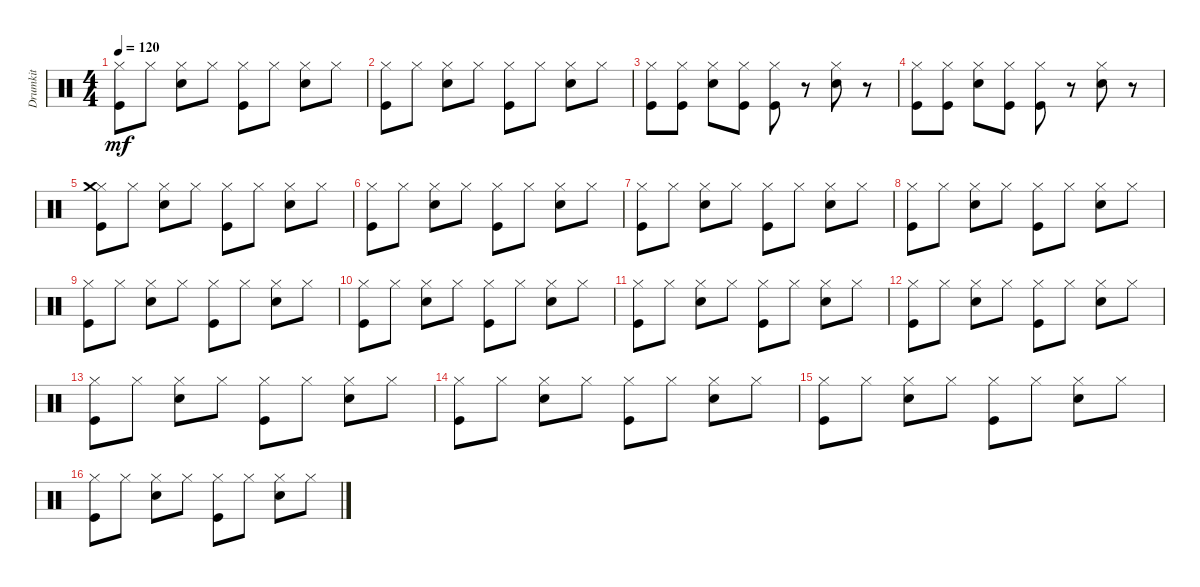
\track ("Drumkit" "Drumkit") {instrument percussion}
\staff {score}
\articulation defaults
\ts (4 4)
\tempo 120
\clef neutral
\ks c
("Hi-Hat (closed)" "Kick (hit)").8{dy mf} "Hi-Hat (closed)".8 ("Hi-Hat (closed)" "Snare (hit) 2").8 "Hi-Hat (closed)".8 ("Hi-Hat (closed)" "Kick (hit)").8 "Hi-Hat (closed)".8 ("Hi-Hat (closed)" "Snare (hit) 2").8 "Hi-Hat (closed)".8 |
("Hi-Hat (closed)" "Kick (hit)").8 "Hi-Hat (closed)".8 ("Hi-Hat (closed)" "Snare (hit) 2").8 "Hi-Hat (closed)".8 ("Hi-Hat (closed)" "Kick (hit)").8 "Hi-Hat (closed)".8 ("Hi-Hat (closed)" "Snare (hit) 2").8 "Hi-Hat (closed)".8 |
("Hi-Hat (closed)" "Kick (hit)").8 ("Hi-Hat (closed)" "Kick (hit)").8 ("Hi-Hat (closed)" "Snare (hit) 2").8 ("Hi-Hat (closed)" "Kick (hit)").8 ("Hi-Hat (closed)" "Kick (hit)").8 r.8 ("Hi-Hat (closed)" "Snare (hit) 2").8 r.8 |
("Hi-Hat (closed)" "Kick (hit)").8 ("Hi-Hat (closed)" "Kick (hit)").8 ("Hi-Hat (closed)" "Snare (hit) 2").8 ("Hi-Hat (closed)" "Kick (hit)").8 ("Hi-Hat (closed)" "Kick (hit)").8 r.8 ("Hi-Hat (closed)" "Snare (hit) 2").8 r.8 |
("Hi-Hat (closed)" "Kick (hit)" "Crash medium (hit)").8 "Hi-Hat (closed)".8 ("Hi-Hat (closed)" "Snare (hit) 2").8 "Hi-Hat (closed)".8 ("Hi-Hat (closed)" "Kick (hit)").8 "Hi-Hat (closed)".8 ("Hi-Hat (closed)" "Snare (hit) 2").8 "Hi-Hat (closed)".8 |
("Hi-Hat (closed)" "Kick (hit)").8 "Hi-Hat (closed)".8 ("Hi-Hat (closed)" "Snare (hit) 2").8 "Hi-Hat (closed)".8 ("Hi-Hat (closed)" "Kick (hit)").8 "Hi-Hat (closed)".8 ("Hi-Hat (closed)" "Snare (hit) 2").8 "Hi-Hat (closed)".8 |
("Hi-Hat (closed)" "Kick (hit)").8 "Hi-Hat (closed)".8 ("Hi-Hat (closed)" "Snare (hit) 2").8 "Hi-Hat (closed)".8 ("Hi-Hat (closed)" "Kick (hit)").8 "Hi-Hat (closed)".8 ("Hi-Hat (closed)" "Snare (hit) 2").8 "Hi-Hat (closed)".8 |
("Hi-Hat (closed)" "Kick (hit)").8 "Hi-Hat (closed)".8 ("Hi-Hat (closed)" "Snare (hit) 2").8 "Hi-Hat (closed)".8 ("Hi-Hat (closed)" "Kick (hit)").8 "Hi-Hat (closed)".8 ("Hi-Hat (closed)" "Snare (hit) 2").8 "Hi-Hat (closed)".8 |
("Hi-Hat (closed)" "Kick (hit)").8 "Hi-Hat (closed)".8 ("Hi-Hat (closed)" "Snare (hit) 2").8 "Hi-Hat (closed)".8 ("Hi-Hat (closed)" "Kick (hit)").8 "Hi-Hat (closed)".8 ("Hi-Hat (closed)" "Snare (hit) 2").8 "Hi-Hat (closed)".8 |
("Hi-Hat (closed)" "Kick (hit)").8 "Hi-Hat (closed)".8 ("Hi-Hat (closed)" "Snare (hit) 2").8 "Hi-Hat (closed)".8 ("Hi-Hat (closed)" "Kick (hit)").8 "Hi-Hat (closed)".8 ("Hi-Hat (closed)" "Snare (hit) 2").8 "Hi-Hat (closed)".8 |
("Hi-Hat (closed)" "Kick (hit)").8 "Hi-Hat (closed)".8 ("Hi-Hat (closed)" "Snare (hit) 2").8 "Hi-Hat (closed)".8 ("Hi-Hat (closed)" "Kick (hit)").8 "Hi-Hat (closed)".8 ("Hi-Hat (closed)" "Snare (hit) 2").8 "Hi-Hat (closed)".8 |
("Hi-Hat (closed)" "Kick (hit)").8 "Hi-Hat (closed)".8 ("Hi-Hat (closed)" "Snare (hit) 2").8 "Hi-Hat (closed)".8 ("Hi-Hat (closed)" "Kick (hit)").8 "Hi-Hat (closed)".8 ("Hi-Hat (closed)" "Snare (hit) 2").8 "Hi-Hat (closed)".8 |
("Hi-Hat (closed)" "Kick (hit)").8 "Hi-Hat (closed)".8 ("Hi-Hat (closed)" "Snare (hit) 2").8 "Hi-Hat (closed)".8 ("Hi-Hat (closed)" "Kick (hit)").8 "Hi-Hat (closed)".8 ("Hi-Hat (closed)" "Snare (hit) 2").8 "Hi-Hat (closed)".8 |
("Hi-Hat (closed)" "Kick (hit)").8 "Hi-Hat (closed)".8 ("Hi-Hat (closed)" "Snare (hit) 2").8 "Hi-Hat (closed)".8 ("Hi-Hat (closed)" "Kick (hit)").8 "Hi-Hat (closed)".8 ("Hi-Hat (closed)" "Snare (hit) 2").8 "Hi-Hat (closed)".8 |
("Hi-Hat (closed)" "Kick (hit)").8 "Hi-Hat (closed)".8 ("Hi-Hat (closed)" "Snare (hit) 2").8 "Hi-Hat (closed)".8 ("Hi-Hat (closed)" "Kick (hit)").8 "Hi-Hat (closed)".8 ("Hi-Hat (closed)" "Snare (hit) 2").8 "Hi-Hat (closed)".8 |
("Hi-Hat (closed)" "Kick (hit)").8 "Hi-Hat (closed)".8 ("Hi-Hat (closed)" "Snare (hit) 2").8 "Hi-Hat (closed)".8 ("Hi-Hat (closed)" "Kick (hit)").8 "Hi-Hat (closed)".8 ("Hi-Hat (closed)" "Snare (hit) 2").8 "Hi-Hat (closed)".8
